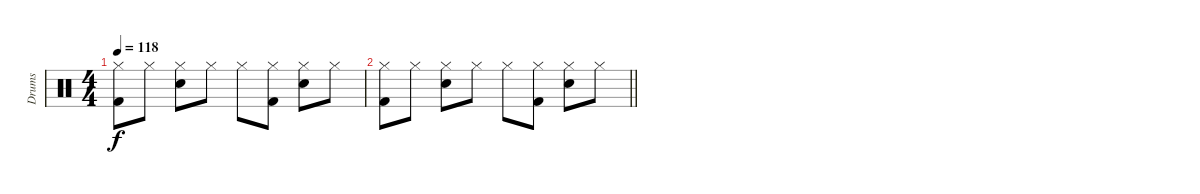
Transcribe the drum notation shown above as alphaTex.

\track ("Drums" "Drums") {instrument percussion}
\staff {score}
\articulation defaults
\ts (4 4)
\tempo 118
\clef neutral
\ks c
("Hi-Hat (closed)" "Kick (hit) 2").8{dy f} "Hi-Hat (closed)".8 ("Hi-Hat (closed)" "Electric Snare (hit)").8 "Hi-Hat (closed)".8 "Hi-Hat (closed)".8 ("Hi-Hat (closed)" "Kick (hit) 2").8 ("Hi-Hat (closed)" "Electric Snare (hit)").8 "Hi-Hat (closed)".8 |
\barLineRight lightlight
("Hi-Hat (closed)" "Kick (hit) 2").8 "Hi-Hat (closed)".8 ("Hi-Hat (closed)" "Electric Snare (hit)").8 "Hi-Hat (closed)".8 "Hi-Hat (closed)".8 ("Hi-Hat (closed)" "Kick (hit) 2").8 ("Hi-Hat (closed)" "Electric Snare (hit)").8 "Hi-Hat (closed)".8
